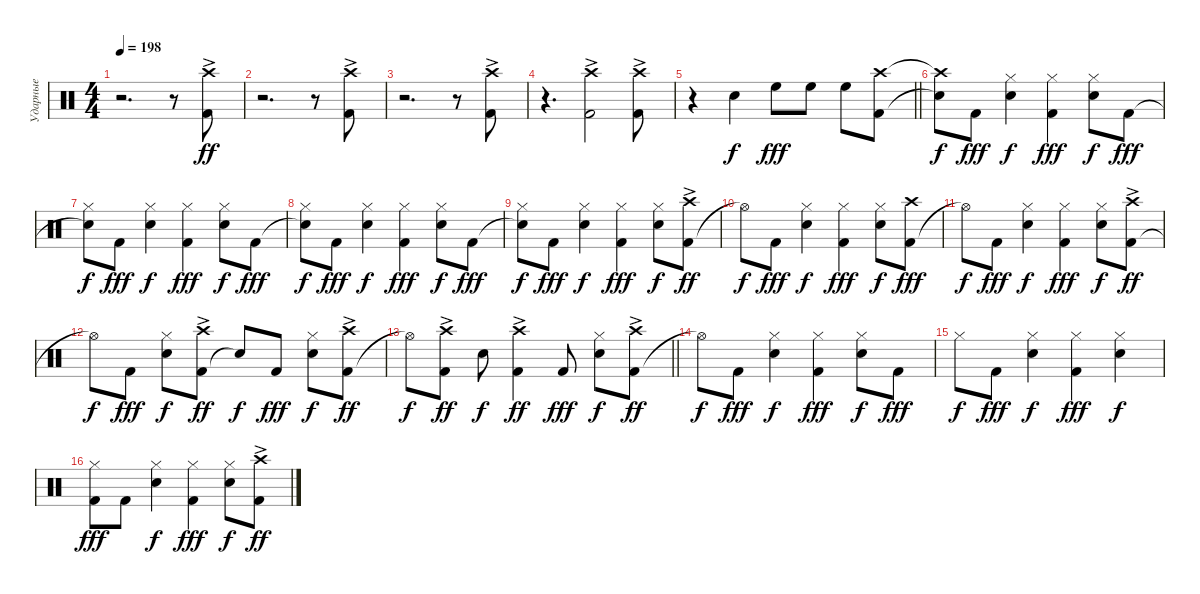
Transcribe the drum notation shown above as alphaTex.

\track ("Ударные" "Ударные") {instrument percussion}
\staff {score}
\articulation defaults
\ts (4 4)
\tempo 198
\clef neutral
\ks c
r.2{d dy ff} r.8 ("Kick (hit) 2" "Crash high (hit)"{ac}).8 |
r.2{d} r.8 ("Kick (hit) 2" "Crash high (hit)"{ac}).8 |
r.2{d} r.8 ("Kick (hit) 2" "Crash high (hit)"{ac}).8 |
r.4{d} ("Kick (hit) 2" "Crash high (hit)"{ac}).2 ("Kick (hit) 2" "Crash high (hit)"{ac}).8 |
\barLineRight lightlight
r.4 "Snare (hit) 2".4{dy f} "High Floor Tom (hit)".8{dy fff} "High Floor Tom (hit)".8 "High Floor Tom (hit)".8 ("Kick (hit) 2" "Crash high (hit)").8 |
("Snare (hit)"{t} "Crash high (hit)"{t}).8{dy f} "Kick (hit) 2".8{dy fff} ("Snare (hit) 2" "Hi-Hat (closed)").4{dy f} ("Kick (hit) 2" "Hi-Hat (closed)").4{dy fff} ("Snare (hit) 2" "Hi-Hat (closed)").8{dy f} "Kick (hit) 2".8{dy fff} |
("Snare (hit)"{t} "Hi-Hat (closed)").8{dy f} "Kick (hit) 2".8{dy fff} ("Snare (hit) 2" "Hi-Hat (closed)").4{dy f} ("Kick (hit) 2" "Hi-Hat (closed)").4{dy fff} ("Snare (hit) 2" "Hi-Hat (closed)").8{dy f} "Kick (hit) 2".8{dy fff} |
("Snare (hit)"{t} "Hi-Hat (closed)").8{dy f} "Kick (hit) 2".8{dy fff} ("Snare (hit) 2" "Hi-Hat (closed)").4{dy f} ("Kick (hit) 2" "Hi-Hat (closed)").4{dy fff} ("Snare (hit) 2" "Hi-Hat (closed)").8{dy f} "Kick (hit) 2".8{dy fff} |
("Snare (hit)"{t} "Hi-Hat (closed)").8{dy f} "Kick (hit) 2".8{dy fff} ("Snare (hit) 2" "Hi-Hat (closed)").4{dy f} ("Kick (hit) 2" "Hi-Hat (closed)").4{dy fff} ("Snare (hit) 2" "Hi-Hat (closed)").8{dy f} ("Kick (hit) 2" "Crash high (hit)"{ac}).8{dy ff} |
"Hi-Hat (open)"{t}.8{dy f} "Kick (hit) 2".8{dy fff} ("Snare (hit) 2" "Hi-Hat (closed)").4{dy f} ("Kick (hit) 2" "Hi-Hat (closed)").4{dy fff} ("Snare (hit) 2" "Hi-Hat (closed)").8{dy f} ("Kick (hit) 2" "Crash high (hit)").8{dy fff} |
"Hi-Hat (open)"{t}.8{dy f} "Kick (hit) 2".8{dy fff} ("Snare (hit) 2" "Hi-Hat (closed)").4{dy f} ("Kick (hit) 2" "Hi-Hat (closed)").4{dy fff} ("Snare (hit) 2" "Hi-Hat (closed)").8{dy f} ("Kick (hit) 2" "Crash high (hit)"{ac}).8{dy ff} |
"Hi-Hat (open)"{t}.8{dy f} "Kick (hit) 2".8{dy fff} ("Snare (hit) 2" "Hi-Hat (closed)").8{dy f} ("Kick (hit) 2" "Crash high (hit)"{ac}).8{dy ff} "Snare (hit)"{t}.8{dy f} "Kick (hit) 2".8{dy fff} ("Snare (hit) 2" "Hi-Hat (closed)").8{dy f} ("Kick (hit) 2" "Crash high (hit)"{ac}).8{dy ff} |
\barLineRight lightlight "Hi-Hat (open)"{t}.8{dy f}
("Kick (hit) 2" "Crash high (hit)"{ac}).8{dy ff} "Snare (hit) 2".8{dy f} ("Kick (hit) 2" "Crash high (hit)"{ac}).4{dy ff} "Kick (hit) 2".8{dy fff} ("Snare (hit) 2" "Hi-Hat (closed)").8{dy f} ("Kick (hit) 2" "Crash high (hit)"{ac}).8{dy ff} |
"Hi-Hat (open)"{t}.8{dy f} "Kick (hit) 2".8{dy fff} ("Snare (hit) 2" "Hi-Hat (closed)").4{dy f} ("Kick (hit) 2" "Hi-Hat (closed)").4{dy fff} ("Snare (hit) 2" "Hi-Hat (closed)").8{dy f} "Kick (hit) 2".8{dy fff} |
"Hi-Hat (closed)".8{dy f} "Kick (hit) 2".8{dy fff} ("Snare (hit) 2" "Hi-Hat (closed)").4{dy f} ("Kick (hit) 2" "Hi-Hat (closed)").4{dy fff} ("Snare (hit) 2" "Hi-Hat (closed)").4{dy f} |
("Kick (hit) 2" "Hi-Hat (closed)").8{dy fff} "Kick (hit) 2".8 ("Snare (hit) 2" "Hi-Hat (closed)").4{dy f} ("Kick (hit) 2" "Hi-Hat (closed)").4{dy fff} ("Snare (hit) 2" "Hi-Hat (closed)").8{dy f} ("Kick (hit) 2" "Crash high (hit)"{ac}).8{dy ff}
